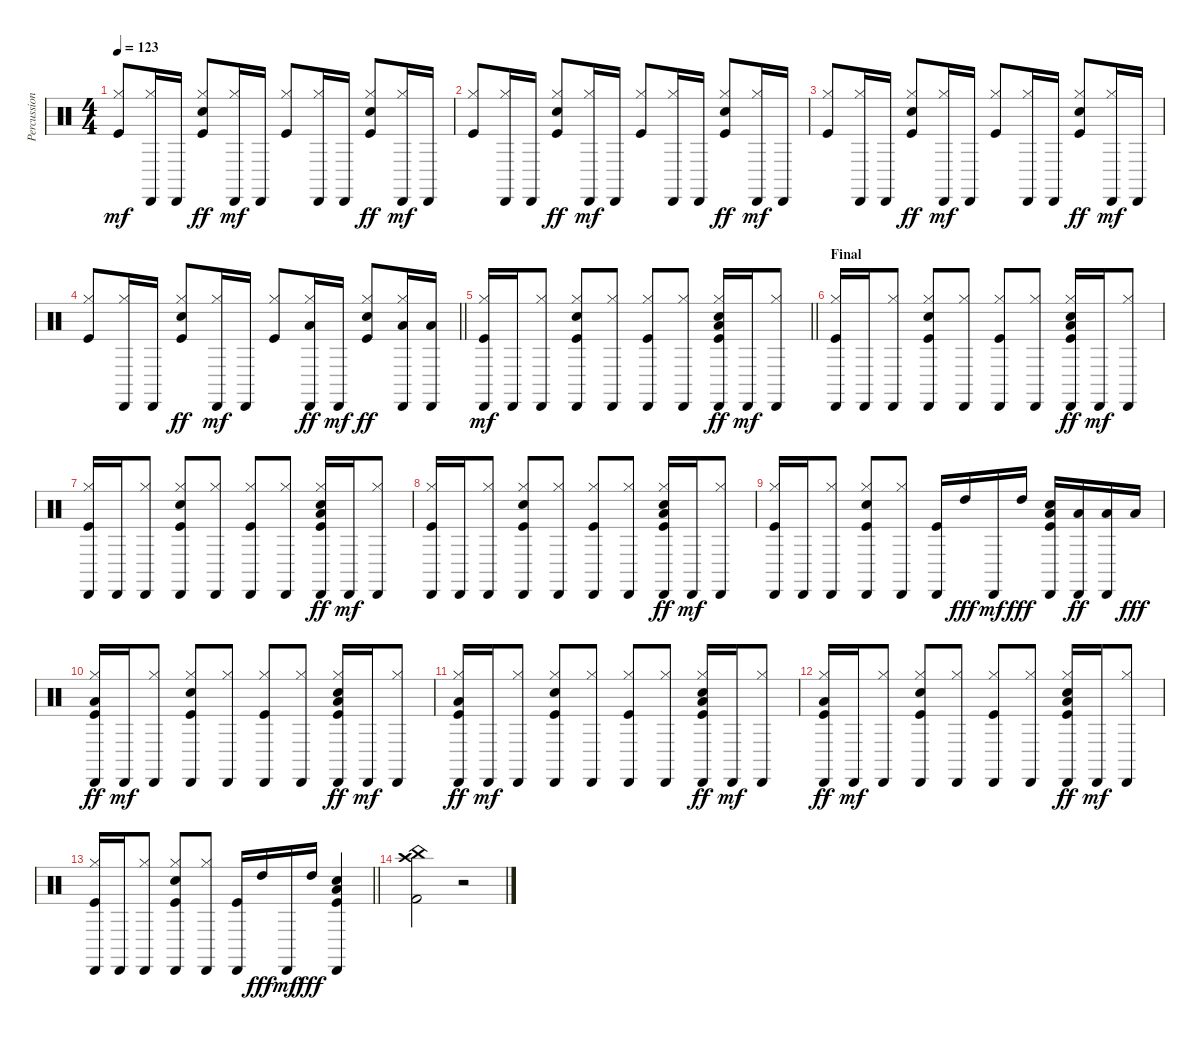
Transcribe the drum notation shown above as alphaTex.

\track ("Percussions" "Percussion") {instrument percussion}
\staff {score}
\articulation defaults
\ts (4 4)
\tempo 123
\clef neutral
\ks c
("Kick (hit)" "Hi-Hat (closed)").8{dy mf} ("Hi-Hat (closed)" "Cabasa (hit)").16 "Cabasa (hit)".16 ("Kick (hit)" "Snare (hit) 2" "Hi-Hat (closed)").8{dy ff} ("Hi-Hat (closed)" "Cabasa (hit)").16{dy mf} "Cabasa (hit)".16 ("Kick (hit)" "Hi-Hat (closed)").8 ("Hi-Hat (closed)" "Cabasa (hit)").16 "Cabasa (hit)".16 ("Kick (hit)" "Snare (hit) 2" "Hi-Hat (closed)").8{dy ff} ("Hi-Hat (closed)" "Cabasa (hit)").16{dy mf} "Cabasa (hit)".16 |
("Kick (hit)" "Hi-Hat (closed)").8 ("Hi-Hat (closed)" "Cabasa (hit)").16 "Cabasa (hit)".16 ("Kick (hit)" "Snare (hit) 2" "Hi-Hat (closed)").8{dy ff} ("Hi-Hat (closed)" "Cabasa (hit)").16{dy mf} "Cabasa (hit)".16 ("Kick (hit)" "Hi-Hat (closed)").8 ("Hi-Hat (closed)" "Cabasa (hit)").16 "Cabasa (hit)".16 ("Kick (hit)" "Snare (hit) 2" "Hi-Hat (closed)").8{dy ff} ("Hi-Hat (closed)" "Cabasa (hit)").16{dy mf} "Cabasa (hit)".16 |
("Kick (hit)" "Hi-Hat (closed)").8 ("Hi-Hat (closed)" "Cabasa (hit)").16 "Cabasa (hit)".16 ("Kick (hit)" "Snare (hit) 2" "Hi-Hat (closed)").8{dy ff} ("Hi-Hat (closed)" "Cabasa (hit)").16{dy mf} "Cabasa (hit)".16 ("Kick (hit)" "Hi-Hat (closed)").8 ("Hi-Hat (closed)" "Cabasa (hit)").16 "Cabasa (hit)".16 ("Kick (hit)" "Snare (hit) 2" "Hi-Hat (closed)").8{dy ff} ("Hi-Hat (closed)" "Cabasa (hit)").16{dy mf} "Cabasa (hit)".16 |
\barLineRight lightlight
("Kick (hit)" "Hi-Hat (closed)").8 ("Hi-Hat (closed)" "Cabasa (hit)").16 "Cabasa (hit)".16 ("Kick (hit)" "Snare (hit) 2" "Hi-Hat (closed)").8{dy ff} ("Hi-Hat (closed)" "Cabasa (hit)").16{dy mf} "Cabasa (hit)".16 ("Kick (hit)" "Hi-Hat (closed)").8 ("Hi-Hat (closed)" "Cabasa (hit)" "Low Tom (hit)").16{dy ff} "Cabasa (hit)".16{dy mf} ("Kick (hit)" "Snare (hit) 2" "Hi-Hat (closed)").8{dy ff} ("Hi-Hat (closed)" "Cabasa (hit)" "Low Tom (hit)").16 ("Cabasa (hit)" "Low Tom (hit)").16 |
\barLineRight lightlight
("Kick (hit)" "Hi-Hat (closed)" "Cabasa (hit)").16{dy mf} "Cabasa (hit)".16 ("Hi-Hat (closed)" "Cabasa (hit)").8 ("Kick (hit)" "Snare (hit) 2" "Hi-Hat (closed)" "Cabasa (hit)").8 ("Hi-Hat (closed)" "Cabasa (hit)").8 ("Kick (hit)" "Hi-Hat (closed)" "Cabasa (hit)").8 ("Hi-Hat (closed)" "Cabasa (hit)").8 ("Kick (hit)" "Snare (hit) 2" "Hi-Hat (closed)" "Cabasa (hit)" "Low Tom (hit)").16{dy ff} "Cabasa (hit)".16{dy mf} ("Hi-Hat (closed)" "Cabasa (hit)").8 |
\section ("" "Final")
("Kick (hit)" "Hi-Hat (closed)" "Cabasa (hit)").16 "Cabasa (hit)".16 ("Hi-Hat (closed)" "Cabasa (hit)").8 ("Kick (hit)" "Snare (hit) 2" "Hi-Hat (closed)" "Cabasa (hit)").8 ("Hi-Hat (closed)" "Cabasa (hit)").8 ("Kick (hit)" "Hi-Hat (closed)" "Cabasa (hit)").8 ("Hi-Hat (closed)" "Cabasa (hit)").8 ("Kick (hit)" "Snare (hit) 2" "Hi-Hat (closed)" "Cabasa (hit)" "Low Tom (hit)").16{dy ff} "Cabasa (hit)".16{dy mf} ("Hi-Hat (closed)" "Cabasa (hit)").8 |
("Kick (hit)" "Hi-Hat (closed)" "Cabasa (hit)").16 "Cabasa (hit)".16 ("Hi-Hat (closed)" "Cabasa (hit)").8 ("Kick (hit)" "Snare (hit) 2" "Hi-Hat (closed)" "Cabasa (hit)").8 ("Hi-Hat (closed)" "Cabasa (hit)").8 ("Kick (hit)" "Hi-Hat (closed)" "Cabasa (hit)").8 ("Hi-Hat (closed)" "Cabasa (hit)").8 ("Kick (hit)" "Snare (hit) 2" "Hi-Hat (closed)" "Cabasa (hit)" "Low Tom (hit)").16{dy ff} "Cabasa (hit)".16{dy mf} ("Hi-Hat (closed)" "Cabasa (hit)").8 |
("Kick (hit)" "Hi-Hat (closed)" "Cabasa (hit)").16 "Cabasa (hit)".16 ("Hi-Hat (closed)" "Cabasa (hit)").8 ("Kick (hit)" "Snare (hit) 2" "Hi-Hat (closed)" "Cabasa (hit)").8 ("Hi-Hat (closed)" "Cabasa (hit)").8 ("Kick (hit)" "Hi-Hat (closed)" "Cabasa (hit)").8 ("Hi-Hat (closed)" "Cabasa (hit)").8 ("Kick (hit)" "Snare (hit) 2" "Hi-Hat (closed)" "Cabasa (hit)" "Low Tom (hit)").16{dy ff} "Cabasa (hit)".16{dy mf} ("Hi-Hat (closed)" "Cabasa (hit)").8 |
("Kick (hit)" "Hi-Hat (closed)" "Cabasa (hit)").16 "Cabasa (hit)".16 ("Hi-Hat (closed)" "Cabasa (hit)").8 ("Kick (hit)" "Snare (hit) 2" "Hi-Hat (closed)" "Cabasa (hit)").8 ("Hi-Hat (closed)" "Cabasa (hit)").8 ("Kick (hit)" "Cabasa (hit)").16 "High Tom (hit)".16{dy fff} "Cabasa (hit)".16{dy mf} "High Tom (hit)".16{dy fff} ("Kick (hit)" "Snare (hit) 2" "Cabasa (hit)" "Low Tom (hit)").16 ("Cabasa (hit)" "Low Tom (hit)").16{dy ff} ("Cabasa (hit)" "Low Tom (hit)").16 "Low Tom (hit)".16{dy fff} |
("Kick (hit)" "Hi-Hat (closed)" "Cabasa (hit)" "Low Tom (hit)").16{dy ff} "Cabasa (hit)".16{dy mf} ("Hi-Hat (closed)" "Cabasa (hit)").8 ("Kick (hit)" "Snare (hit) 2" "Hi-Hat (closed)" "Cabasa (hit)").8 ("Hi-Hat (closed)" "Cabasa (hit)").8 ("Kick (hit)" "Hi-Hat (closed)" "Cabasa (hit)").8 ("Hi-Hat (closed)" "Cabasa (hit)").8 ("Kick (hit)" "Snare (hit) 2" "Hi-Hat (closed)" "Cabasa (hit)" "Low Tom (hit)").16{dy ff} "Cabasa (hit)".16{dy mf} ("Hi-Hat (closed)" "Cabasa (hit)").8 |
("Kick (hit)" "Hi-Hat (closed)" "Cabasa (hit)" "Low Tom (hit)").16{dy ff} "Cabasa (hit)".16{dy mf} ("Hi-Hat (closed)" "Cabasa (hit)").8 ("Kick (hit)" "Snare (hit) 2" "Hi-Hat (closed)" "Cabasa (hit)").8 ("Hi-Hat (closed)" "Cabasa (hit)").8 ("Kick (hit)" "Hi-Hat (closed)" "Cabasa (hit)").8 ("Hi-Hat (closed)" "Cabasa (hit)").8 ("Kick (hit)" "Snare (hit) 2" "Hi-Hat (closed)" "Cabasa (hit)" "Low Tom (hit)").16{dy ff} "Cabasa (hit)".16{dy mf} ("Hi-Hat (closed)" "Cabasa (hit)").8 |
("Kick (hit)" "Hi-Hat (closed)" "Cabasa (hit)" "Low Tom (hit)").16{dy ff} "Cabasa (hit)".16{dy mf} ("Hi-Hat (closed)" "Cabasa (hit)").8 ("Kick (hit)" "Snare (hit) 2" "Hi-Hat (closed)" "Cabasa (hit)").8 ("Hi-Hat (closed)" "Cabasa (hit)").8 ("Kick (hit)" "Hi-Hat (closed)" "Cabasa (hit)").8 ("Hi-Hat (closed)" "Cabasa (hit)").8 ("Kick (hit)" "Snare (hit) 2" "Hi-Hat (closed)" "Cabasa (hit)" "Low Tom (hit)").16{dy ff} "Cabasa (hit)".16{dy mf} ("Hi-Hat (closed)" "Cabasa (hit)").8 |
\barLineRight lightlight
("Kick (hit)" "Hi-Hat (closed)" "Cabasa (hit)").16 "Cabasa (hit)".16 ("Hi-Hat (closed)" "Cabasa (hit)").8 ("Kick (hit)" "Snare (hit) 2" "Hi-Hat (closed)" "Cabasa (hit)").8 ("Hi-Hat (closed)" "Cabasa (hit)").8 ("Kick (hit)" "Cabasa (hit)").16 "High Tom (hit)".16{dy fff} "Cabasa (hit)".16{dy mf} "High Tom (hit)".16{dy fff} ("Kick (hit)" "Snare (hit) 2" "Cabasa (hit)" "Low Tom (hit)").4 |
("Crash high (hit)" "Kick (hit) 2" "China (hit)").2 r.2
